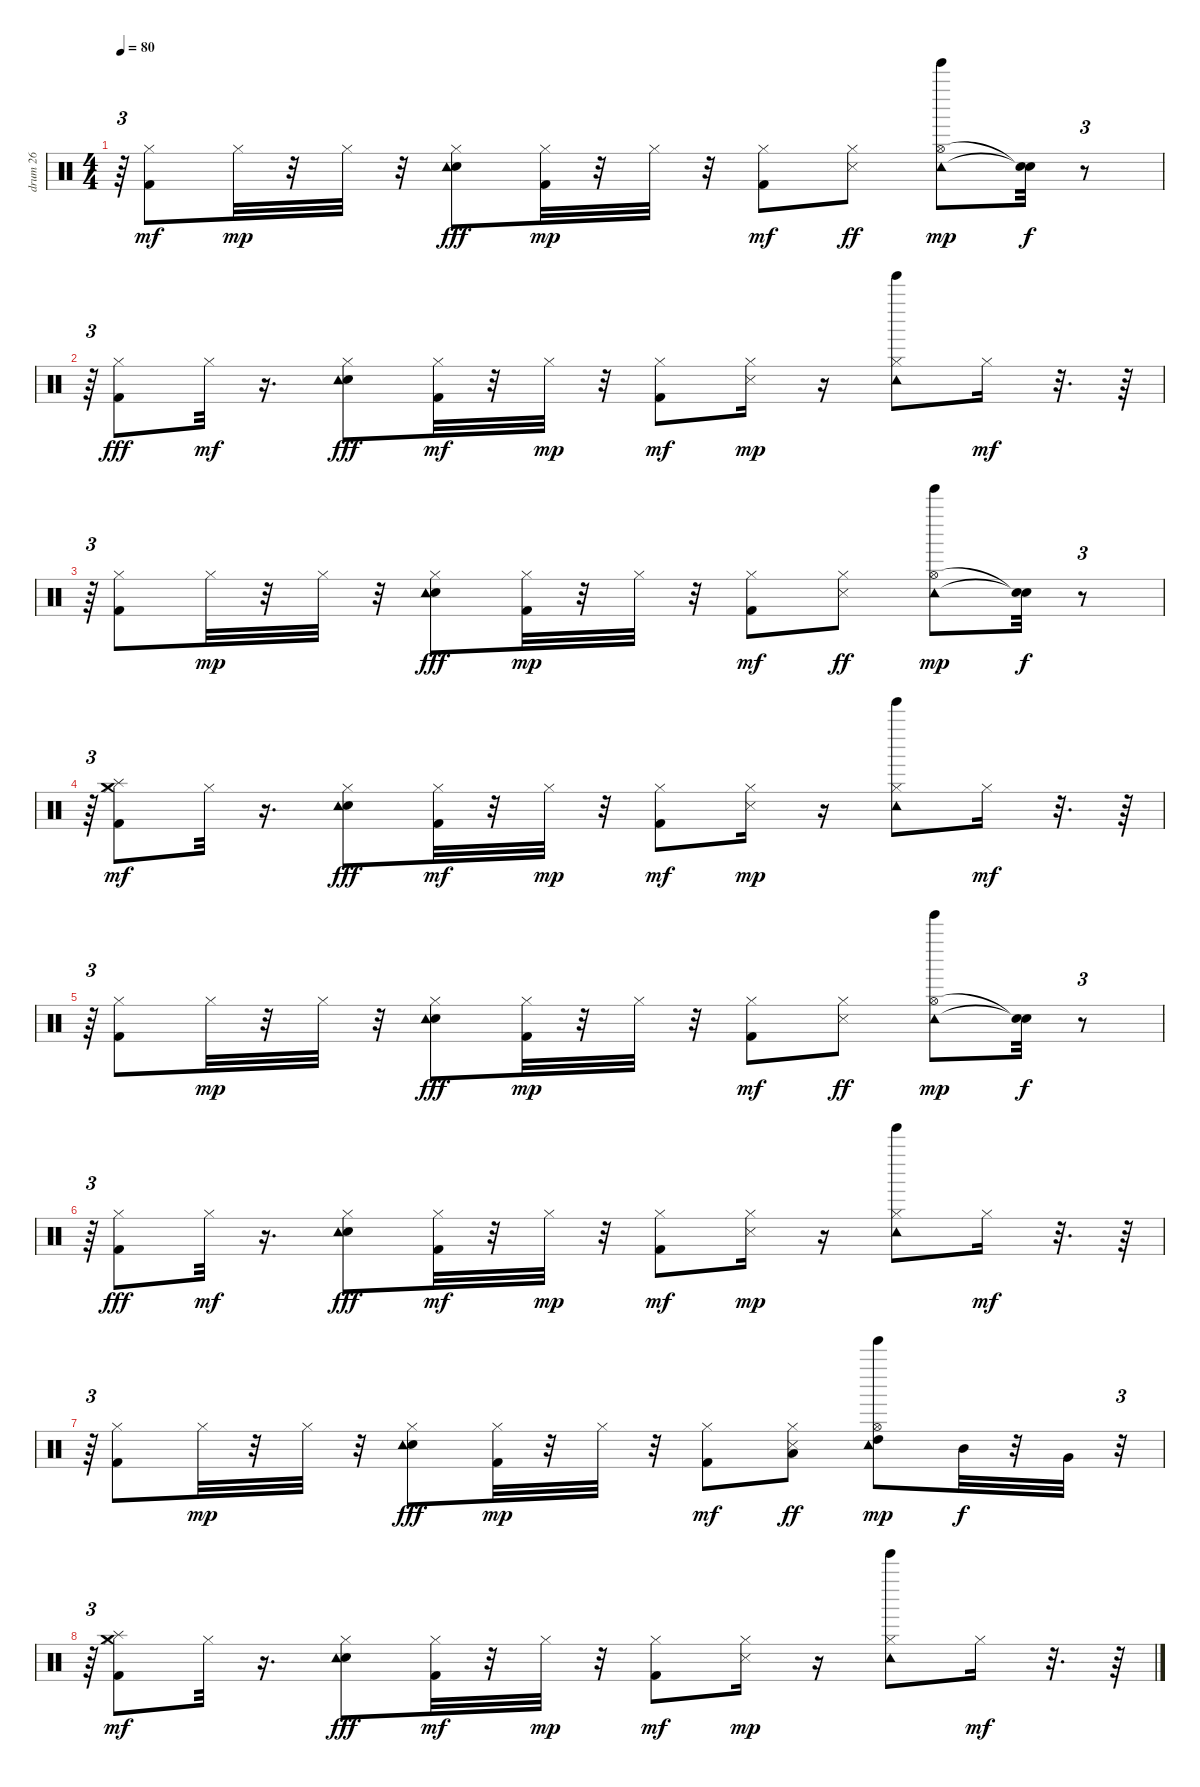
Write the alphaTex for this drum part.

\track ("drum 26" "drum 26") {instrument percussion}
\staff {score}
\articulation defaults
\ts (4 4)
\tempo 80
\clef neutral
\ks c
r.64{tu (3 2) dy mf} ("Kick (hit) 2" "Hi-Hat (closed)").8 "Hi-Hat (closed)".32{dy mp} r.32 "Hi-Hat (closed)".32 r.32 ("Hand Clap (hit)" "Hi-Hat (closed)" "Tambourine (hit)").8{dy fff} ("Kick (hit) 2" "Hi-Hat (closed)").32{dy mp} r.32 "Hi-Hat (closed)".32 r.32 ("Kick (hit) 2" "Hi-Hat (closed)").8{dy mf} ("Snare (side stick) 3" "Hi-Hat (closed)").8{dy ff} ("Hi-Hat (open)" "Tambourine (hit)" "Tinkle Bell (hit)").8{dy mp} ("Snare (hit)"{t} "Snare (hit)"{t}).32{dy f} r.8{tu (3 2)} |
r.64{tu (3 2)} ("Kick (hit) 2" "Hi-Hat (closed)").8{dy fff} "Hi-Hat (closed)".32{dy mf} r.16{d} ("Hand Clap (hit)" "Hi-Hat (closed)" "Tambourine (hit)").8{dy fff} ("Kick (hit) 2" "Hi-Hat (closed)").32{dy mf} r.32 "Hi-Hat (closed)".32{dy mp} r.32 ("Kick (hit) 2" "Hi-Hat (closed)").8{dy mf} ("Snare (side stick) 3" "Hi-Hat (closed)").16{dy mp} r.16 ("Hi-Hat (closed)" "Tambourine (hit)" "Tinkle Bell (hit)").8 "Hi-Hat (closed)".16{dy mf} r.32{d} r.64 |
r.64{tu (3 2)} ("Kick (hit) 2" "Hi-Hat (closed)").8 "Hi-Hat (closed)".32{dy mp} r.32 "Hi-Hat (closed)".32 r.32 ("Hand Clap (hit)" "Hi-Hat (closed)" "Tambourine (hit)").8{dy fff} ("Kick (hit) 2" "Hi-Hat (closed)").32{dy mp} r.32 "Hi-Hat (closed)".32 r.32 ("Kick (hit) 2" "Hi-Hat (closed)").8{dy mf} ("Snare (side stick) 3" "Hi-Hat (closed)").8{dy ff} ("Hi-Hat (open)" "Tambourine (hit)" "Tinkle Bell (hit)").8{dy mp} ("Snare (hit)"{t} "Snare (hit)"{t}).32{dy f} r.8{tu (3 2)} |
r.64{tu (3 2)} ("Kick (hit) 2" "Hi-Hat (closed)" "Splash (hit)" "Crash medium (hit)").8{dy mf} "Hi-Hat (closed)".32 r.16{d} ("Hand Clap (hit)" "Hi-Hat (closed)" "Tambourine (hit)").8{dy fff} ("Kick (hit) 2" "Hi-Hat (closed)").32{dy mf} r.32 "Hi-Hat (closed)".32{dy mp} r.32 ("Kick (hit) 2" "Hi-Hat (closed)").8{dy mf} ("Snare (side stick) 3" "Hi-Hat (closed)").16{dy mp} r.16 ("Hi-Hat (closed)" "Tambourine (hit)" "Tinkle Bell (hit)").8 "Hi-Hat (closed)".16{dy mf} r.32{d} r.64 |
r.64{tu (3 2)} ("Kick (hit) 2" "Hi-Hat (closed)").8 "Hi-Hat (closed)".32{dy mp} r.32 "Hi-Hat (closed)".32 r.32 ("Hand Clap (hit)" "Hi-Hat (closed)" "Tambourine (hit)").8{dy fff} ("Kick (hit) 2" "Hi-Hat (closed)").32{dy mp} r.32 "Hi-Hat (closed)".32 r.32 ("Kick (hit) 2" "Hi-Hat (closed)").8{dy mf} ("Snare (side stick) 3" "Hi-Hat (closed)").8{dy ff} ("Hi-Hat (open)" "Tambourine (hit)" "Tinkle Bell (hit)").8{dy mp} ("Snare (hit)"{t} "Snare (hit)"{t}).32{dy f} r.8{tu (3 2)} |
r.64{tu (3 2)} ("Kick (hit) 2" "Hi-Hat (closed)").8{dy fff} "Hi-Hat (closed)".32{dy mf} r.16{d} ("Hand Clap (hit)" "Hi-Hat (closed)" "Tambourine (hit)").8{dy fff} ("Kick (hit) 2" "Hi-Hat (closed)").32{dy mf} r.32 "Hi-Hat (closed)".32{dy mp} r.32 ("Kick (hit) 2" "Hi-Hat (closed)").8{dy mf} ("Snare (side stick) 3" "Hi-Hat (closed)").16{dy mp} r.16 ("Hi-Hat (closed)" "Tambourine (hit)" "Tinkle Bell (hit)").8 "Hi-Hat (closed)".16{dy mf} r.32{d} r.64 |
r.64{tu (3 2)} ("Kick (hit) 2" "Hi-Hat (closed)").8 "Hi-Hat (closed)".32{dy mp} r.32 "Hi-Hat (closed)".32 r.32 ("Hand Clap (hit)" "Hi-Hat (closed)" "Tambourine (hit)").8{dy fff} ("Kick (hit) 2" "Hi-Hat (closed)").32{dy mp} r.32 "Hi-Hat (closed)".32 r.32 ("Kick (hit) 2" "Hi-Hat (closed)").8{dy mf} ("Snare (side stick) 3" "Hi-Hat (closed)" "Low Tom (hit)").8{dy ff} ("Hi-Hat (open)" "High Tom (hit)" "Tambourine (hit)" "Tinkle Bell (hit)").8{dy mp} "Mid Tom (hit)".32{dy f} r.32 "Very Low Tom (hit)".32 r.32{tu (3 2)} |
r.64{tu (3 2)} ("Kick (hit) 2" "Hi-Hat (closed)" "Splash (hit)" "Crash medium (hit)").8{dy mf} "Hi-Hat (closed)".32 r.16{d} ("Hand Clap (hit)" "Hi-Hat (closed)" "Tambourine (hit)").8{dy fff} ("Kick (hit) 2" "Hi-Hat (closed)").32{dy mf} r.32 "Hi-Hat (closed)".32{dy mp} r.32 ("Kick (hit) 2" "Hi-Hat (closed)").8{dy mf} ("Snare (side stick) 3" "Hi-Hat (closed)").16{dy mp} r.16 ("Hi-Hat (closed)" "Tambourine (hit)" "Tinkle Bell (hit)").8 "Hi-Hat (closed)".16{dy mf} r.32{d} r.64
